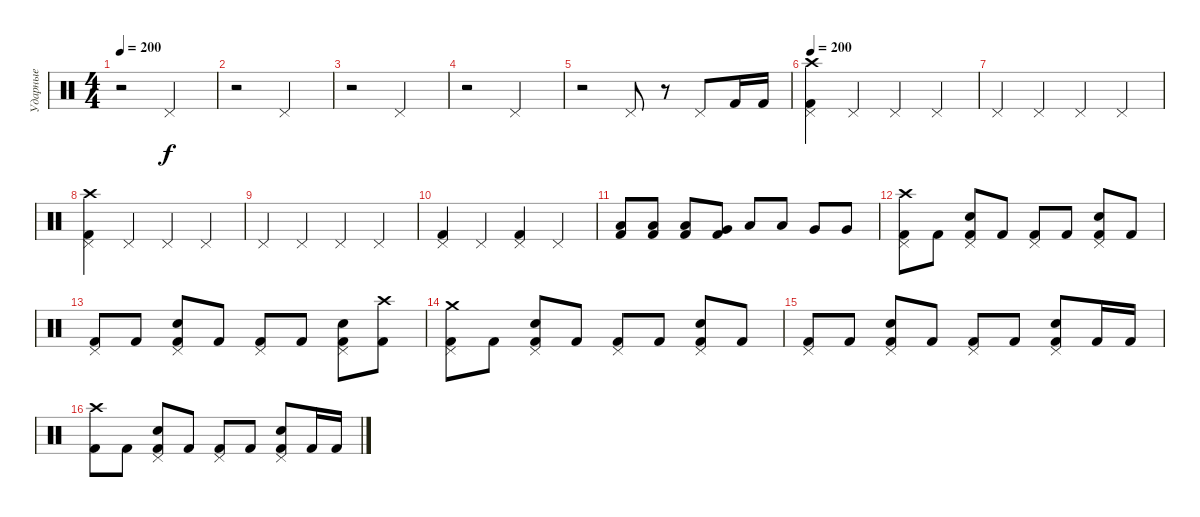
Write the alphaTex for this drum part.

\track ("Ударные" "Ударные") {instrument percussion}
\staff
\articulation defaults
\ts (4 4)
\tempo 200
\clef neutral
\ks c
r.2{dy f} "Pedal Hi-Hat (hit)".2 |
r.2 "Pedal Hi-Hat (hit)".2 |
r.2 "Pedal Hi-Hat (hit)".2 |
r.2 "Pedal Hi-Hat (hit)".2 |
r.2 "Pedal Hi-Hat (hit)".8 r.8 "Pedal Hi-Hat (hit)".8 "Kick (hit) 2".16 "Kick (hit) 2".16 |
\tempo 200
("Kick (hit) 2" "Crash high (hit)" "Pedal Hi-Hat (hit)").4 "Pedal Hi-Hat (hit)".4 "Pedal Hi-Hat (hit)".4 "Pedal Hi-Hat (hit)".4 |
"Pedal Hi-Hat (hit)".4 "Pedal Hi-Hat (hit)".4 "Pedal Hi-Hat (hit)".4 "Pedal Hi-Hat (hit)".4 |
("Kick (hit) 2" "Crash high (hit)" "Pedal Hi-Hat (hit)").4 "Pedal Hi-Hat (hit)".4 "Pedal Hi-Hat (hit)".4 "Pedal Hi-Hat (hit)".4 |
"Pedal Hi-Hat (hit)".4 "Pedal Hi-Hat (hit)".4 "Pedal Hi-Hat (hit)".4 "Pedal Hi-Hat (hit)".4 |
("Kick (hit) 2" "Pedal Hi-Hat (hit)").4 "Pedal Hi-Hat (hit)".4 ("Kick (hit) 2" "Pedal Hi-Hat (hit)").4 "Pedal Hi-Hat (hit)".4 |
("Low Floor Tom (hit)" "Kick (hit) 2").8 ("Low Tom (hit)" "Kick (hit) 2").8 ("Low Floor Tom (hit)" "Kick (hit) 2").8 ("Very Low Tom (hit)" "Kick (hit) 2").8 "Low Tom (hit)".8 "Low Tom (hit)".8 "Very Low Tom (hit)".8 "Very Low Tom (hit)".8 |
("Kick (hit) 2" "Pedal Hi-Hat (hit)" "Crash high (hit)").8 "Kick (hit) 2".8 ("Snare (hit) 2" "Pedal Hi-Hat (hit)" "Kick (hit) 2").8 "Kick (hit) 2".8 ("Kick (hit) 2" "Pedal Hi-Hat (hit)").8 "Kick (hit) 2".8 ("Snare (hit) 2" "Pedal Hi-Hat (hit)" "Kick (hit) 2").8 "Kick (hit) 2".8 |
("Kick (hit) 2" "Pedal Hi-Hat (hit)").8 "Kick (hit) 2".8 ("Snare (hit) 2" "Pedal Hi-Hat (hit)" "Kick (hit) 2").8 "Kick (hit) 2".8 ("Kick (hit) 2" "Pedal Hi-Hat (hit)").8 "Kick (hit) 2".8 ("Snare (hit) 2" "Pedal Hi-Hat (hit)" "Kick (hit) 2").8 ("Kick (hit) 2" "Crash high (hit)").8 |
("Kick (hit) 2" "Pedal Hi-Hat (hit)" "Crash medium (hit)").8 "Kick (hit) 2".8 ("Snare (hit) 2" "Pedal Hi-Hat (hit)" "Kick (hit) 2").8 "Kick (hit) 2".8 ("Kick (hit) 2" "Pedal Hi-Hat (hit)").8 "Kick (hit) 2".8 ("Snare (hit) 2" "Pedal Hi-Hat (hit)" "Kick (hit) 2").8 "Kick (hit) 2".8 |
("Kick (hit) 2" "Pedal Hi-Hat (hit)").8 "Kick (hit) 2".8 ("Snare (hit) 2" "Pedal Hi-Hat (hit)" "Kick (hit) 2").8 "Kick (hit) 2".8 ("Kick (hit) 2" "Pedal Hi-Hat (hit)").8 "Kick (hit) 2".8 ("Snare (hit) 2" "Pedal Hi-Hat (hit)" "Kick (hit) 2").8 "Kick (hit) 2".16 "Kick (hit) 2".16 |
("Kick (hit) 2" "Crash high (hit)").8 "Kick (hit) 2".8 ("Snare (hit) 2" "Pedal Hi-Hat (hit)" "Kick (hit) 2").8 "Kick (hit) 2".8 ("Kick (hit) 2" "Pedal Hi-Hat (hit)").8 "Kick (hit) 2".8 ("Snare (hit) 2" "Pedal Hi-Hat (hit)" "Kick (hit) 2").8 "Kick (hit) 2".16 "Kick (hit) 2".16
